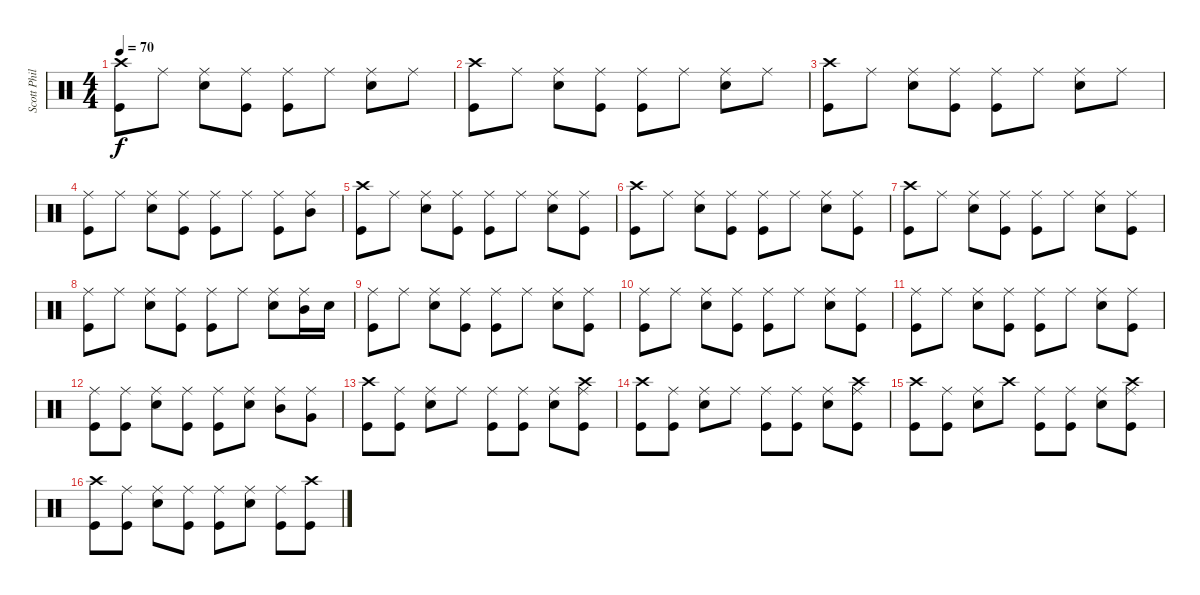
\track ("Scott Phillips" "Scott Phil") {instrument percussion}
\staff {score}
\articulation defaults
\ts (4 4)
\tempo 70
\clef neutral
\ks c
("Crash high (hit)" "Kick (hit)").8{dy f} "Ride (middle)".8 ("Ride (middle)" "Snare (hit) 2").8 ("Ride (middle)" "Kick (hit)").8 ("Ride (middle)" "Kick (hit)").8 "Ride (middle)".8 ("Ride (middle)" "Snare (hit) 2").8 "Ride (middle)".8 |
("Crash high (hit)" "Kick (hit)").8 "Ride (middle)".8 ("Ride (middle)" "Snare (hit) 2").8 ("Ride (middle)" "Kick (hit)").8 ("Ride (middle)" "Kick (hit)").8 "Ride (middle)".8 ("Ride (middle)" "Snare (hit) 2").8 "Ride (middle)".8 |
("Crash high (hit)" "Kick (hit)").8 "Ride (middle)".8 ("Ride (middle)" "Snare (hit) 2").8 ("Ride (middle)" "Kick (hit)").8 ("Ride (middle)" "Kick (hit)").8 "Ride (middle)".8 ("Ride (middle)" "Snare (hit) 2").8 "Ride (middle)".8 |
("Ride (middle)" "Kick (hit)").8 "Ride (middle)".8 ("Ride (middle)" "Snare (hit) 2").8 ("Ride (middle)" "Kick (hit)").8 ("Ride (middle)" "Kick (hit)").8 "Ride (middle)".8 ("Ride (middle)" "Kick (hit)").8 ("Ride (middle)" "Mid Tom (hit)").8 |
("Crash high (hit)" "Kick (hit)").8 "Ride (middle)".8 ("Ride (middle)" "Snare (hit) 2").8 ("Ride (middle)" "Kick (hit)").8 ("Ride (middle)" "Kick (hit)").8 "Ride (middle)".8 ("Ride (middle)" "Snare (hit) 2").8 ("Ride (middle)" "Kick (hit)").8 |
("Crash high (hit)" "Kick (hit)").8 "Ride (middle)".8 ("Ride (middle)" "Snare (hit) 2").8 ("Ride (middle)" "Kick (hit)").8 ("Ride (middle)" "Kick (hit)").8 "Ride (middle)".8 ("Ride (middle)" "Snare (hit) 2").8 ("Ride (middle)" "Kick (hit)").8 |
("Crash high (hit)" "Kick (hit)").8 "Ride (middle)".8 ("Ride (middle)" "Snare (hit) 2").8 ("Ride (middle)" "Kick (hit)").8 ("Ride (middle)" "Kick (hit)").8 "Ride (middle)".8 ("Ride (middle)" "Snare (hit) 2").8 ("Ride (middle)" "Kick (hit)").8 |
("Ride (middle)" "Kick (hit)").8 "Ride (middle)".8 ("Ride (middle)" "Snare (hit) 2").8 ("Ride (middle)" "Kick (hit)").8 ("Ride (middle)" "Kick (hit)").8 "Ride (middle)".8 ("Ride (middle)" "Snare (hit) 2").8 ("Ride (middle)" "Mid Tom (hit)").16 "Snare (hit) 2".16 |
("Ride (middle)" "Kick (hit)").8 "Ride (middle)".8 ("Ride (middle)" "Snare (hit) 2").8 ("Ride (middle)" "Kick (hit)").8 ("Ride (middle)" "Kick (hit)").8 "Ride (middle)".8 ("Ride (middle)" "Snare (hit) 2").8 ("Ride (middle)" "Kick (hit)").8 |
("Ride (middle)" "Kick (hit)").8 "Ride (middle)".8 ("Ride (middle)" "Snare (hit) 2").8 ("Ride (middle)" "Kick (hit)").8 ("Ride (middle)" "Kick (hit)").8 "Ride (middle)".8 ("Ride (middle)" "Snare (hit) 2").8 ("Ride (middle)" "Kick (hit)").8 |
("Ride (middle)" "Kick (hit)").8 "Ride (middle)".8 ("Ride (middle)" "Snare (hit) 2").8 ("Ride (middle)" "Kick (hit)").8 ("Ride (middle)" "Kick (hit)").8 "Ride (middle)".8 ("Ride (middle)" "Snare (hit) 2").8 ("Ride (middle)" "Kick (hit)").8 |
("Ride (middle)" "Kick (hit)").8 ("Ride (middle)" "Kick (hit)").8 ("Ride (middle)" "Snare (hit) 2").8 ("Ride (middle)" "Kick (hit)").8 ("Ride (middle)" "Kick (hit)").8 ("Ride (middle)" "Snare (hit) 2").8 ("Ride (middle)" "Mid Tom (hit)").8 ("Ride (middle)" "Very Low Tom (hit)").8 |
("Crash high (hit)" "Kick (hit)").8 ("Ride (middle)" "Kick (hit)").8 ("Ride (middle)" "Snare (hit) 2").8 "Ride (middle)".8 ("Ride (middle)" "Kick (hit)").8 ("Ride (middle)" "Kick (hit)").8 ("Ride (middle)" "Snare (hit) 2").8 ("Crash high (hit)" "Ride (middle)" "Kick (hit)").8 |
("Crash high (hit)" "Kick (hit)").8 ("Ride (middle)" "Kick (hit)").8 ("Ride (middle)" "Snare (hit) 2").8 "Ride (middle)".8 ("Ride (middle)" "Kick (hit)").8 ("Ride (middle)" "Kick (hit)").8 ("Ride (middle)" "Snare (hit) 2").8 ("Crash high (hit)" "Ride (middle)" "Kick (hit)").8 |
("Crash high (hit)" "Kick (hit)").8 ("Ride (middle)" "Kick (hit)").8 ("Ride (middle)" "Snare (hit) 2").8 "Crash high (hit)".8 ("Ride (middle)" "Kick (hit)").8 ("Ride (middle)" "Kick (hit)").8 ("Ride (middle)" "Snare (hit) 2").8 ("Crash high (hit)" "Ride (middle)" "Kick (hit)").8 |
("Crash high (hit)" "Kick (hit)").8 ("Ride (middle)" "Kick (hit)").8 ("Ride (middle)" "Snare (hit) 2").8 ("Ride (middle)" "Kick (hit)").8 ("Ride (middle)" "Kick (hit)").8 ("Ride (middle)" "Snare (hit) 2").8 ("Ride (middle)" "Kick (hit)").8 ("Crash high (hit)" "Kick (hit)").8
